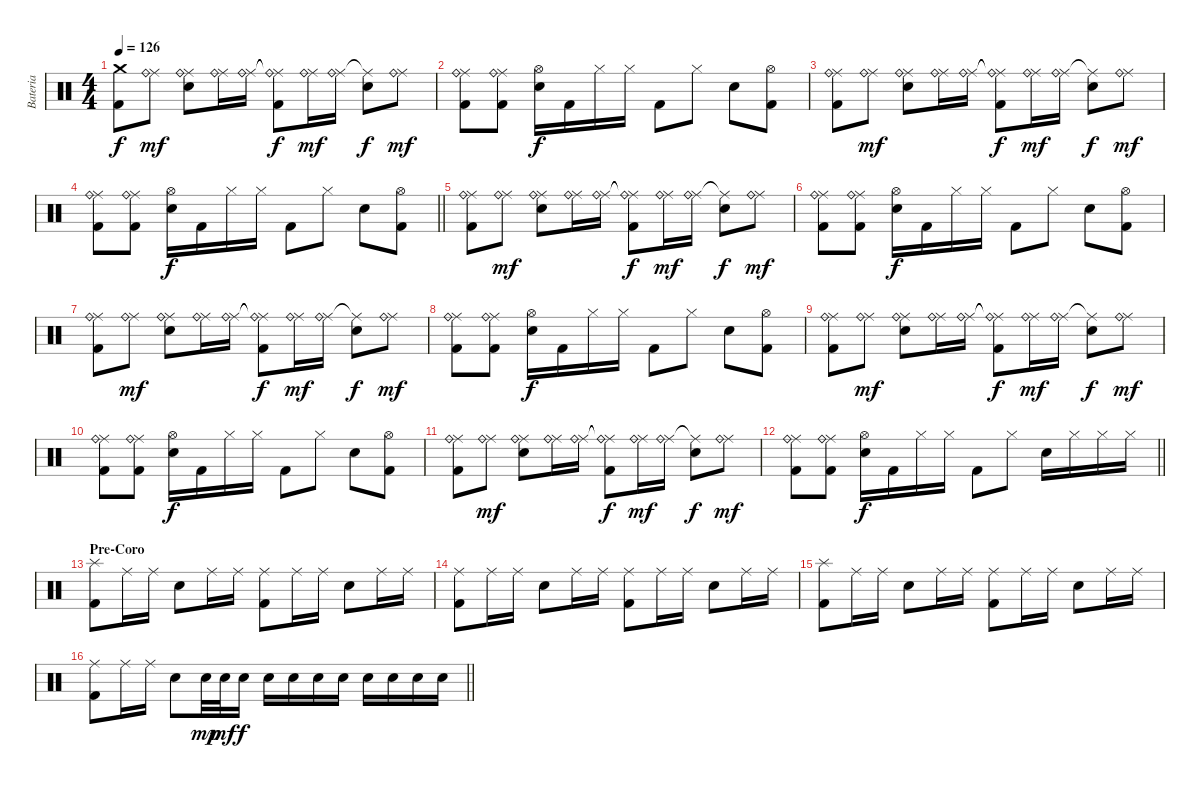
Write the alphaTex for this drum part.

\track ("Bateria" "Bateria") {instrument percussion}
\staff {score}
\articulation defaults
\ts (4 4)
\tempo 126
\clef neutral
\ks c
("Crash medium (hit)" "Kick (hit) 2").8{dy f} ("Ride (middle)" "Ride (bell)").8{dy mf} ("Ride (middle)" "Ride (bell)" "Electric Snare (hit)").8 ("Ride (middle)" "Ride (bell)").16 ("Ride (middle)" "Ride (bell)").16 ("Ride (middle)"{t} "Ride (bell)"{t} "Kick (hit) 2").8{dy f} ("Ride (middle)" "Ride (bell)").16{dy mf} ("Ride (middle)" "Ride (bell)").16 ("Ride (middle)"{t} "Electric Snare (hit)").8{dy f} ("Ride (middle)" "Ride (bell)").8{dy mf} |
("Ride (middle)" "Ride (bell)" "Kick (hit) 2").8 ("Ride (middle)" "Ride (bell)" "Kick (hit) 2").8 ("Hi-Hat (open)" "Electric Snare (hit)").16{dy f} "Kick (hit) 2".16 "Hi-Hat (closed)".16 "Hi-Hat (closed)".16 "Kick (hit) 2".8 "Hi-Hat (closed)".8 "Electric Snare (hit)".8 ("Hi-Hat (open)" "Kick (hit) 2").8 |
("Ride (middle)" "Ride (bell)" "Kick (hit) 2").8 ("Ride (middle)" "Ride (bell)").8{dy mf} ("Ride (middle)" "Ride (bell)" "Electric Snare (hit)").8 ("Ride (middle)" "Ride (bell)").16 ("Ride (middle)" "Ride (bell)").16 ("Ride (middle)"{t} "Ride (bell)"{t} "Kick (hit) 2").8{dy f} ("Ride (middle)" "Ride (bell)").16{dy mf} ("Ride (middle)" "Ride (bell)").16 ("Ride (middle)"{t} "Electric Snare (hit)").8{dy f} ("Ride (middle)" "Ride (bell)").8{dy mf} |
\barLineRight lightlight
("Ride (middle)" "Ride (bell)" "Kick (hit) 2").8 ("Ride (middle)" "Ride (bell)" "Kick (hit) 2").8 ("Hi-Hat (open)" "Electric Snare (hit)").16{dy f} "Kick (hit) 2".16 "Hi-Hat (closed)".16 "Hi-Hat (closed)".16 "Kick (hit) 2".8 "Hi-Hat (closed)".8 "Electric Snare (hit)".8 ("Hi-Hat (open)" "Kick (hit) 2").8 |
("Ride (middle)" "Ride (bell)" "Kick (hit) 2").8 ("Ride (middle)" "Ride (bell)").8{dy mf} ("Ride (middle)" "Ride (bell)" "Electric Snare (hit)").8 ("Ride (middle)" "Ride (bell)").16 ("Ride (middle)" "Ride (bell)").16 ("Ride (middle)"{t} "Ride (bell)"{t} "Kick (hit) 2").8{dy f} ("Ride (middle)" "Ride (bell)").16{dy mf} ("Ride (middle)" "Ride (bell)").16 ("Ride (middle)"{t} "Electric Snare (hit)").8{dy f} ("Ride (middle)" "Ride (bell)").8{dy mf} |
("Ride (middle)" "Ride (bell)" "Kick (hit) 2").8 ("Ride (middle)" "Ride (bell)" "Kick (hit) 2").8 ("Hi-Hat (open)" "Electric Snare (hit)").16{dy f} "Kick (hit) 2".16 "Hi-Hat (closed)".16 "Hi-Hat (closed)".16 "Kick (hit) 2".8 "Hi-Hat (closed)".8 "Electric Snare (hit)".8 ("Hi-Hat (open)" "Kick (hit) 2").8 |
("Ride (middle)" "Ride (bell)" "Kick (hit) 2").8 ("Ride (middle)" "Ride (bell)").8{dy mf} ("Ride (middle)" "Ride (bell)" "Electric Snare (hit)").8 ("Ride (middle)" "Ride (bell)").16 ("Ride (middle)" "Ride (bell)").16 ("Ride (middle)"{t} "Ride (bell)"{t} "Kick (hit) 2").8{dy f} ("Ride (middle)" "Ride (bell)").16{dy mf} ("Ride (middle)" "Ride (bell)").16 ("Ride (middle)"{t} "Electric Snare (hit)").8{dy f} ("Ride (middle)" "Ride (bell)").8{dy mf} |
("Ride (middle)" "Ride (bell)" "Kick (hit) 2").8 ("Ride (middle)" "Ride (bell)" "Kick (hit) 2").8 ("Hi-Hat (open)" "Electric Snare (hit)").16{dy f} "Kick (hit) 2".16 "Hi-Hat (closed)".16 "Hi-Hat (closed)".16 "Kick (hit) 2".8 "Hi-Hat (closed)".8 "Electric Snare (hit)".8 ("Hi-Hat (open)" "Kick (hit) 2").8 |
("Ride (middle)" "Ride (bell)" "Kick (hit) 2").8 ("Ride (middle)" "Ride (bell)").8{dy mf} ("Ride (middle)" "Ride (bell)" "Electric Snare (hit)").8 ("Ride (middle)" "Ride (bell)").16 ("Ride (middle)" "Ride (bell)").16 ("Ride (middle)"{t} "Ride (bell)"{t} "Kick (hit) 2").8{dy f} ("Ride (middle)" "Ride (bell)").16{dy mf} ("Ride (middle)" "Ride (bell)").16 ("Ride (middle)"{t} "Electric Snare (hit)").8{dy f} ("Ride (middle)" "Ride (bell)").8{dy mf} |
("Ride (middle)" "Ride (bell)" "Kick (hit) 2").8 ("Ride (middle)" "Ride (bell)" "Kick (hit) 2").8 ("Hi-Hat (open)" "Electric Snare (hit)").16{dy f} "Kick (hit) 2".16 "Hi-Hat (closed)".16 "Hi-Hat (closed)".16 "Kick (hit) 2".8 "Hi-Hat (closed)".8 "Electric Snare (hit)".8 ("Hi-Hat (open)" "Kick (hit) 2").8 |
("Ride (middle)" "Ride (bell)" "Kick (hit) 2").8 ("Ride (middle)" "Ride (bell)").8{dy mf} ("Ride (middle)" "Ride (bell)" "Electric Snare (hit)").8 ("Ride (middle)" "Ride (bell)").16 ("Ride (middle)" "Ride (bell)").16 ("Ride (middle)"{t} "Ride (bell)"{t} "Kick (hit) 2").8{dy f} ("Ride (middle)" "Ride (bell)").16{dy mf} ("Ride (middle)" "Ride (bell)").16 ("Ride (middle)"{t} "Electric Snare (hit)").8{dy f} ("Ride (middle)" "Ride (bell)").8{dy mf} |
\barLineRight lightlight
("Ride (middle)" "Ride (bell)" "Kick (hit) 2").8 ("Ride (middle)" "Ride (bell)" "Kick (hit) 2").8 ("Hi-Hat (open)" "Electric Snare (hit)").16{dy f} "Kick (hit) 2".16 "Hi-Hat (closed)".16 "Hi-Hat (closed)".16 "Kick (hit) 2".8 "Hi-Hat (closed)".8 "Electric Snare (hit)".16 "Hi-Hat (closed)".16 "Hi-Hat (closed)".16 "Hi-Hat (closed)".16 |
\section ("" "Pre-Coro")
("Splash (hit)" "Kick (hit) 2").8 "Ride (middle)".16 "Ride (middle)".16 "Electric Snare (hit)".8 "Ride (middle)".16 "Ride (middle)".16 ("Ride (middle)" "Kick (hit) 2").8 "Ride (middle)".16 "Ride (middle)".16 "Electric Snare (hit)".8 "Ride (middle)".16 "Ride (middle)".16 |
("Ride (middle)" "Kick (hit) 2").8 "Ride (middle)".16 "Ride (middle)".16 "Electric Snare (hit)".8 "Ride (middle)".16 "Ride (middle)".16 ("Ride (middle)" "Kick (hit) 2").8 "Ride (middle)".16 "Ride (middle)".16 "Electric Snare (hit)".8 "Ride (middle)".16 "Ride (middle)".16 |
("Splash (hit)" "Kick (hit) 2").8 "Ride (middle)".16 "Ride (middle)".16 "Electric Snare (hit)".8 "Ride (middle)".16 "Ride (middle)".16 ("Ride (middle)" "Kick (hit) 2").8 "Ride (middle)".16 "Ride (middle)".16 "Electric Snare (hit)".8 "Ride (middle)".16 "Ride (middle)".16 |
\barLineRight lightlight
("Ride (middle)" "Kick (hit) 2").8 "Ride (middle)".16 "Ride (middle)".16 "Electric Snare (hit)".8 "Electric Snare (hit)".32{dy mp} "Electric Snare (hit)".32{dy mf} "Electric Snare (hit)".16{dy f} "Electric Snare (hit)".16 "Electric Snare (hit)".16 "Electric Snare (hit)".16 "Electric Snare (hit)".16 "Electric Snare (hit)".16 "Electric Snare (hit)".16 "Electric Snare (hit)".16 "Electric Snare (hit)".16
